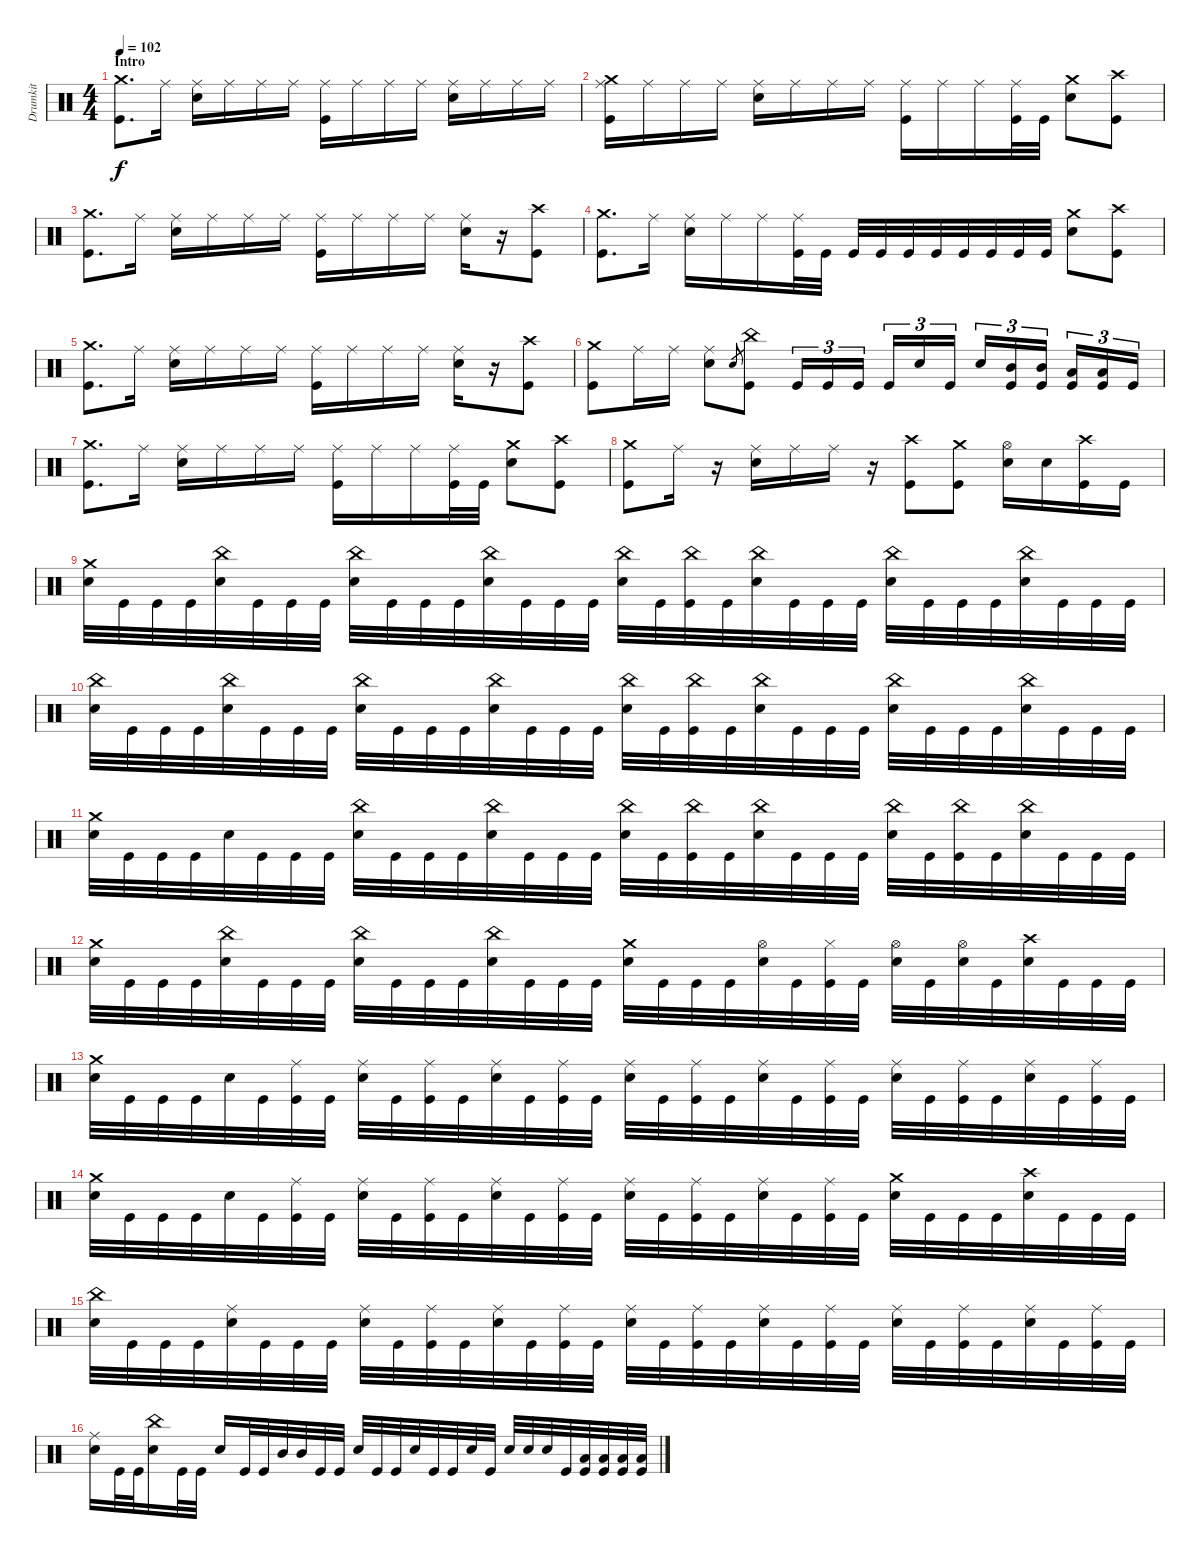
\track ("Drumkit" "Drumkit") {instrument percussion}
\staff {score}
\articulation defaults
\ts (4 4)
\section ("" "Intro")
\tempo 102
\clef neutral
\ks c
("Kick (hit)" "Crash medium (hit)").8{d dy f} "Ride (middle)".16 ("Snare (hit) 2" "Ride (middle)").16 "Ride (middle)".16 "Ride (middle)".16 "Ride (middle)".16 ("Kick (hit)" "Ride (middle)").16 "Ride (middle)".16 "Ride (middle)".16 "Ride (middle)".16 ("Snare (hit) 2" "Ride (middle)").16 "Ride (middle)".16 "Ride (middle)".16 "Ride (middle)".16 |
("Kick (hit)" "Ride (middle)" "Crash medium (hit)").16 "Ride (middle)".16 "Ride (middle)".16 "Ride (middle)".16 ("Snare (hit) 2" "Ride (middle)").16 "Ride (middle)".16 "Ride (middle)".16 "Ride (middle)".16 ("Kick (hit)" "Ride (middle)").16 "Ride (middle)".16 "Ride (middle)".16 ("Kick (hit)" "Ride (middle)").32 "Kick (hit)".32 ("Snare (hit) 2" "Crash medium (hit)").8 ("Kick (hit)" "Crash high (hit)").8 |
("Kick (hit)" "Crash medium (hit)").8{d} "Ride (middle)".16 ("Snare (hit) 2" "Ride (middle)").16 "Ride (middle)".16 "Ride (middle)".16 "Ride (middle)".16 ("Kick (hit)" "Ride (middle)").16 "Ride (middle)".16 "Ride (middle)".16 "Ride (middle)".16 ("Snare (hit) 2" "Ride (middle)").16 r.16 ("Kick (hit)" "Crash high (hit)").8 |
("Kick (hit)" "Crash medium (hit)").8{d} "Ride (middle)".16 ("Snare (hit) 2" "Ride (middle)").16 "Ride (middle)".16 "Ride (middle)".16 ("Kick (hit)" "Ride (middle)").32 "Kick (hit)".32 "Kick (hit)".32 "Kick (hit)".32 "Kick (hit)".32 "Kick (hit)".32 "Kick (hit)".32 "Kick (hit)".32 "Kick (hit)".32 "Kick (hit)".32 ("Snare (hit) 2" "Crash medium (hit)").8 ("Kick (hit)" "Crash high (hit)").8 |
("Kick (hit)" "Crash medium (hit)").8{d} "Ride (middle)".16 ("Snare (hit) 2" "Ride (middle)").16 "Ride (middle)".16 "Ride (middle)".16 "Ride (middle)".16 ("Kick (hit)" "Ride (middle)").16 "Ride (middle)".16 "Ride (middle)".16 "Ride (middle)".16 ("Snare (hit) 2" "Ride (middle)").16 r.16 ("Kick (hit)" "Crash high (hit)").8 |
("Kick (hit)" "Crash medium (hit)").8 "Ride (middle)".16 "Ride (middle)".16 ("Snare (hit) 2" "Ride (middle)").8 "Snare (hit)".8{gr} ("Kick (hit)" "China (hit)").8 "Kick (hit)".16{tu (3 2)} "Kick (hit)".16{tu (3 2)} "Kick (hit)".16{tu (3 2)} "Kick (hit)".16{tu (3 2)} "Snare (hit) 2".16{tu (3 2)} "Kick (hit)".16{tu (3 2)} "Snare (hit) 2".16{tu (3 2)} ("Kick (hit)" "Mid Tom (hit)").16{tu (3 2)} ("Kick (hit)" "Mid Tom (hit)").16{tu (3 2)} ("Kick (hit)" "Low Tom (hit)").16{tu (3 2)} ("Kick (hit)" "Low Tom (hit)").16{tu (3 2)} "Kick (hit)".16{tu (3 2)} |
("Kick (hit)" "Crash medium (hit)").8{d} "Ride (middle)".16 ("Snare (hit) 2" "Ride (middle)").16 "Ride (middle)".16 "Ride (middle)".16 "Ride (middle)".16 ("Kick (hit)" "Ride (middle)").16 "Ride (middle)".16 "Ride (middle)".16 ("Kick (hit)" "Ride (middle)").32 "Kick (hit)".32 ("Snare (hit) 2" "Crash medium (hit)").8 ("Kick (hit)" "Crash high (hit)").8 |
("Kick (hit)" "Crash medium (hit)").8 "Ride (middle)".16 r.16 ("Snare (hit) 2" "Ride (middle)").16 "Ride (middle)".16 "Ride (middle)".16 r.16 ("Kick (hit)" "Crash high (hit)").8 ("Kick (hit)" "Crash medium (hit)").8 ("Snare (hit) 2" "Hi-Hat (open)").16 "Snare (hit) 2".16 ("Kick (hit)" "Crash high (hit)").16 "Kick (hit)".16 |
("Snare (hit) 2" "Crash medium (hit)").32 "Kick (hit)".32 "Kick (hit)".32 "Kick (hit)".32 ("Snare (hit) 2" "China (hit)").32 "Kick (hit)".32 "Kick (hit)".32 "Kick (hit)".32 ("Snare (hit) 2" "China (hit)").32 "Kick (hit)".32 "Kick (hit)".32 "Kick (hit)".32 ("Snare (hit) 2" "China (hit)").32 "Kick (hit)".32 "Kick (hit)".32 "Kick (hit)".32 ("Snare (hit) 2" "China (hit)").32 "Kick (hit)".32 ("Kick (hit)" "China (hit)").32 "Kick (hit)".32 ("Snare (hit) 2" "China (hit)").32 "Kick (hit)".32 "Kick (hit)".32 "Kick (hit)".32 ("Snare (hit) 2" "China (hit)").32 "Kick (hit)".32 "Kick (hit)".32 "Kick (hit)".32 ("Snare (hit) 2" "China (hit)").32 "Kick (hit)".32 "Kick (hit)".32 "Kick (hit)".32 |
("Snare (hit) 2" "China (hit)").32 "Kick (hit)".32 "Kick (hit)".32 "Kick (hit)".32 ("Snare (hit) 2" "China (hit)").32 "Kick (hit)".32 "Kick (hit)".32 "Kick (hit)".32 ("Snare (hit) 2" "China (hit)").32 "Kick (hit)".32 "Kick (hit)".32 "Kick (hit)".32 ("Snare (hit) 2" "China (hit)").32 "Kick (hit)".32 "Kick (hit)".32 "Kick (hit)".32 ("Snare (hit) 2" "China (hit)").32 "Kick (hit)".32 ("Kick (hit)" "China (hit)").32 "Kick (hit)".32 ("Snare (hit) 2" "China (hit)").32 "Kick (hit)".32 "Kick (hit)".32 "Kick (hit)".32 ("Snare (hit) 2" "China (hit)").32 "Kick (hit)".32 "Kick (hit)".32 "Kick (hit)".32 ("Snare (hit) 2" "China (hit)").32 "Kick (hit)".32 "Kick (hit)".32 "Kick (hit)".32 |
("Snare (hit) 2" "Crash medium (hit)").32 "Kick (hit)".32 "Kick (hit)".32 "Kick (hit)".32 "Snare (hit) 2".32 "Kick (hit)".32 "Kick (hit)".32 "Kick (hit)".32 ("Snare (hit) 2" "China (hit)").32 "Kick (hit)".32 "Kick (hit)".32 "Kick (hit)".32 ("Snare (hit) 2" "China (hit)").32 "Kick (hit)".32 "Kick (hit)".32 "Kick (hit)".32 ("Snare (hit) 2" "China (hit)").32 "Kick (hit)".32 ("Kick (hit)" "China (hit)").32 "Kick (hit)".32 ("Snare (hit) 2" "China (hit)").32 "Kick (hit)".32 "Kick (hit)".32 "Kick (hit)".32 ("Snare (hit) 2" "China (hit)").32 "Kick (hit)".32 ("Kick (hit)" "China (hit)").32 "Kick (hit)".32 ("Snare (hit) 2" "China (hit)").32 "Kick (hit)".32 "Kick (hit)".32 "Kick (hit)".32 |
("Snare (hit) 2" "Crash medium (hit)").32 "Kick (hit)".32 "Kick (hit)".32 "Kick (hit)".32 ("Snare (hit) 2" "China (hit)").32 "Kick (hit)".32 "Kick (hit)".32 "Kick (hit)".32 ("Snare (hit) 2" "China (hit)").32 "Kick (hit)".32 "Kick (hit)".32 "Kick (hit)".32 ("Snare (hit) 2" "China (hit)").32 "Kick (hit)".32 "Kick (hit)".32 "Kick (hit)".32 ("Snare (hit) 2" "Crash medium (hit)").32 "Kick (hit)".32 "Kick (hit)".32 "Kick (hit)".32 ("Snare (hit) 2" "Hi-Hat (open)").32 "Kick (hit)".32 ("Kick (hit)" "Hi-Hat (closed)").32 "Kick (hit)".32 ("Snare (hit) 2" "Hi-Hat (open)").32 "Kick (hit)".32 ("Snare (hit) 2" "Hi-Hat (open)").32 "Kick (hit)".32 ("Snare (hit) 2" "Crash high (hit)").32 "Kick (hit)".32 "Kick (hit)".32 "Kick (hit)".32 |
("Snare (hit) 2" "Crash medium (hit)").32 "Kick (hit)".32 "Kick (hit)".32 "Kick (hit)".32 "Snare (hit) 2".32 "Kick (hit)".32 ("Kick (hit)" "Ride (middle)").32 "Kick (hit)".32 ("Snare (hit) 2" "Ride (middle)").32 "Kick (hit)".32 ("Kick (hit)" "Ride (middle)").32 "Kick (hit)".32 ("Snare (hit) 2" "Ride (middle)").32 "Kick (hit)".32 ("Kick (hit)" "Ride (middle)").32 "Kick (hit)".32 ("Snare (hit) 2" "Ride (middle)").32 "Kick (hit)".32 ("Kick (hit)" "Ride (middle)").32 "Kick (hit)".32 ("Snare (hit) 2" "Ride (middle)").32 "Kick (hit)".32 ("Kick (hit)" "Ride (middle)").32 "Kick (hit)".32 ("Snare (hit) 2" "Ride (middle)").32 "Kick (hit)".32 ("Kick (hit)" "Ride (middle)").32 "Kick (hit)".32 ("Snare (hit) 2" "Ride (middle)").32 "Kick (hit)".32 ("Kick (hit)" "Ride (middle)").32 "Kick (hit)".32 |
("Snare (hit) 2" "Crash medium (hit)").32 "Kick (hit)".32 "Kick (hit)".32 "Kick (hit)".32 "Snare (hit) 2".32 "Kick (hit)".32 ("Kick (hit)" "Ride (middle)").32 "Kick (hit)".32 ("Snare (hit) 2" "Ride (middle)").32 "Kick (hit)".32 ("Kick (hit)" "Ride (middle)").32 "Kick (hit)".32 ("Snare (hit) 2" "Ride (middle)").32 "Kick (hit)".32 ("Kick (hit)" "Ride (middle)").32 "Kick (hit)".32 ("Snare (hit) 2" "Ride (middle)").32 "Kick (hit)".32 ("Kick (hit)" "Ride (middle)").32 "Kick (hit)".32 ("Snare (hit) 2" "Ride (middle)").32 "Kick (hit)".32 ("Kick (hit)" "Ride (middle)").32 "Kick (hit)".32 ("Snare (hit) 2" "Crash medium (hit)").32 "Kick (hit)".32 "Kick (hit)".32 "Kick (hit)".32 ("Snare (hit) 2" "Crash high (hit)").32 "Kick (hit)".32 "Kick (hit)".32 "Kick (hit)".32 |
("Snare (hit) 2" "China (hit)").32 "Kick (hit)".32 "Kick (hit)".32 "Kick (hit)".32 ("Snare (hit) 2" "Ride (middle)").32 "Kick (hit)".32 "Kick (hit)".32 "Kick (hit)".32 ("Snare (hit) 2" "Ride (middle)").32 "Kick (hit)".32 ("Kick (hit)" "Ride (middle)").32 "Kick (hit)".32 ("Snare (hit) 2" "Ride (middle)").32 "Kick (hit)".32 ("Kick (hit)" "Ride (middle)").32 "Kick (hit)".32 ("Snare (hit) 2" "Ride (middle)").32 "Kick (hit)".32 ("Kick (hit)" "Ride (middle)").32 "Kick (hit)".32 ("Snare (hit) 2" "Ride (middle)").32 "Kick (hit)".32 ("Kick (hit)" "Ride (middle)").32 "Kick (hit)".32 ("Snare (hit) 2" "Ride (middle)").32 "Kick (hit)".32 ("Kick (hit)" "Ride (middle)").32 "Kick (hit)".32 ("Snare (hit) 2" "Ride (middle)").32 "Kick (hit)".32 ("Kick (hit)" "Ride (middle)").32 "Kick (hit)".32 |
("Snare (hit) 2" "Ride (middle)").16 "Kick (hit)".32 "Kick (hit)".32 ("Snare (hit) 2" "China (hit)").16 "Kick (hit)".32 "Kick (hit)".32 "Snare (hit) 2".16 "Kick (hit)".32 "Kick (hit)".32 "Mid Tom (hit)".32 "Mid Tom (hit)".32 "Kick (hit)".32 "Kick (hit)".32 "Snare (hit) 2".32 "Kick (hit)".32 "Kick (hit)".32 "Snare (hit) 2".32 "Kick (hit)".32 "Kick (hit)".32 "Snare (hit) 2".32 "Kick (hit)".32 "Snare (hit) 2".32 "Snare (hit) 2".32 "Snare (hit) 2".32 "Kick (hit)".32 ("Kick (hit)" "Low Tom (hit)").32 ("Kick (hit)" "Low Tom (hit)").32 ("Kick (hit)" "Low Tom (hit)").32 ("Kick (hit)" "Low Tom (hit)").32
